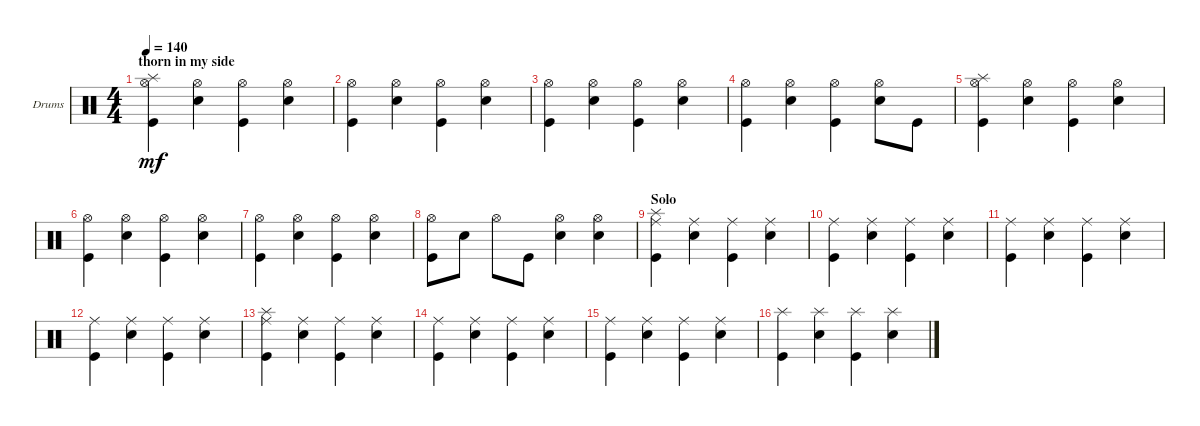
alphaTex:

\defaultSystemsLayout 4
\bracketExtendMode groupsimilarinstruments
\firstSystemTrackNameOrientation horizontal
\otherSystemsTrackNameOrientation horizontal
\track ("Drumkit" "Drums") {instrument percussion}
\staff {score}
\articulation defaults
\ts (4 4)
\section ("" "thorn in my side")
\tempo 140
\clef neutral
\ks c
("Splash (hit)" "Hi-Hat (open)" "Kick (hit)").4{dy mf} ("Hi-Hat (open)" "Snare (hit) 2").4 ("Kick (hit)" "Hi-Hat (open)").4 ("Snare (hit) 2" "Hi-Hat (open)").4 |
("Hi-Hat (open)" "Kick (hit)").4 ("Hi-Hat (open)" "Snare (hit) 2").4 ("Kick (hit)" "Hi-Hat (open)").4 ("Snare (hit) 2" "Hi-Hat (open)").4 |
("Kick (hit)" "Hi-Hat (open)").4 ("Hi-Hat (open)" "Snare (hit) 2").4 ("Kick (hit)" "Hi-Hat (open)").4 ("Snare (hit) 2" "Hi-Hat (open)").4 |
("Kick (hit)" "Hi-Hat (open)").4 ("Hi-Hat (open)" "Snare (hit) 2").4 ("Kick (hit)" "Hi-Hat (open)").4 ("Snare (hit) 2" "Hi-Hat (open)").8 "Kick (hit)".8 |
("Splash (hit)" "Hi-Hat (open)" "Kick (hit)").4 ("Hi-Hat (open)" "Snare (hit) 2").4 ("Kick (hit)" "Hi-Hat (open)").4 ("Snare (hit) 2" "Hi-Hat (open)").4 |
("Hi-Hat (open)" "Kick (hit)").4 ("Hi-Hat (open)" "Snare (hit) 2").4 ("Kick (hit)" "Hi-Hat (open)").4 ("Snare (hit) 2" "Hi-Hat (open)").4 |
("Kick (hit)" "Hi-Hat (open)").4 ("Hi-Hat (open)" "Snare (hit) 2").4 ("Kick (hit)" "Hi-Hat (open)").4 ("Snare (hit) 2" "Hi-Hat (open)").4 |
("Hi-Hat (open)" "Kick (hit)").8 "Snare (hit) 2".8 "Hi-Hat (open)".8 "Kick (hit)".8 ("Snare (hit) 2" "Hi-Hat (open)").4 ("Snare (hit) 2" "Hi-Hat (open)").4 |
\section ("" "Solo")
("Splash (hit)" "Kick (hit)" "Ride (middle)").4 ("Snare (hit) 2" "Ride (middle)").4 ("Kick (hit)" "Ride (middle)").4 ("Snare (hit) 2" "Ride (middle)").4 |
("Kick (hit)" "Ride (middle)").4 ("Snare (hit) 2" "Ride (middle)").4 ("Kick (hit)" "Ride (middle)").4 ("Snare (hit) 2" "Ride (middle)").4 |
("Kick (hit)" "Ride (middle)").4 ("Snare (hit) 2" "Ride (middle)").4 ("Kick (hit)" "Ride (middle)").4 ("Snare (hit) 2" "Ride (middle)").4 |
("Kick (hit)" "Ride (middle)").4 ("Snare (hit) 2" "Ride (middle)").4 ("Kick (hit)" "Ride (middle)").4 ("Snare (hit) 2" "Ride (middle)").4 |
("Splash (hit)" "Kick (hit)" "Ride (middle)").4 ("Snare (hit) 2" "Ride (middle)").4 ("Kick (hit)" "Ride (middle)").4 ("Snare (hit) 2" "Ride (middle)").4 |
("Kick (hit)" "Ride (middle)").4 ("Snare (hit) 2" "Ride (middle)").4 ("Kick (hit)" "Ride (middle)").4 ("Snare (hit) 2" "Ride (middle)").4 |
("Kick (hit)" "Ride (middle)").4 ("Snare (hit) 2" "Ride (middle)").4 ("Kick (hit)" "Ride (middle)").4 ("Snare (hit) 2" "Ride (middle)").4 |
("Kick (hit)" "Splash (hit)").4 ("Snare (hit) 2" "Splash (hit)").4 ("Kick (hit)" "Splash (hit)").4 ("Snare (hit) 2" "Splash (hit)").4
